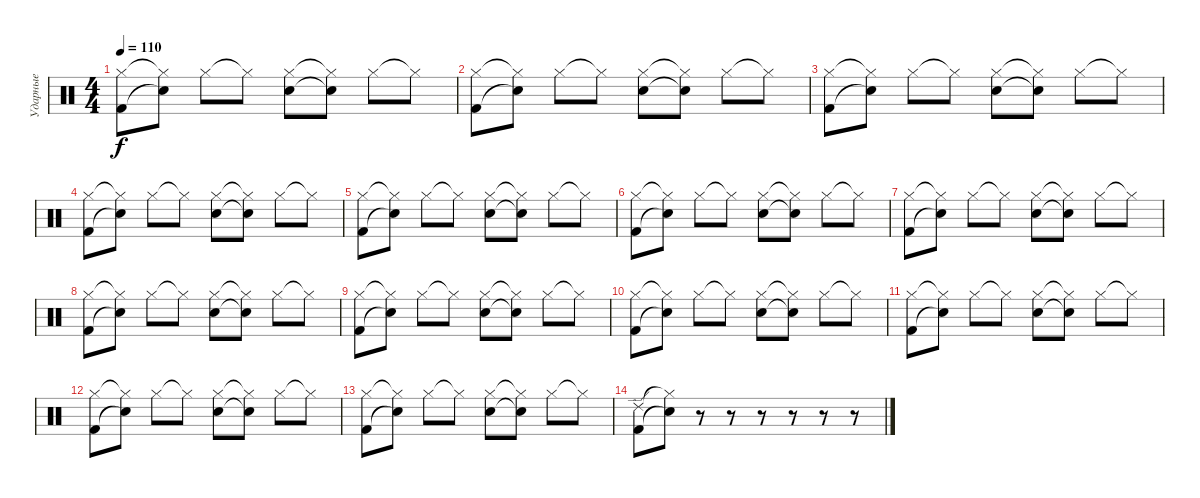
\track ("Ударные" "Ударные") {instrument percussion}
\staff {score}
\articulation defaults
\ts (4 4)
\tempo 110
\clef neutral
\ks c
("Hi-Hat (closed)" "Kick (hit) 2").8{dy f} ("Hi-Hat (closed)"{t} "Snare (hit)"{t}).8 "Hi-Hat (closed)".8 "Hi-Hat (closed)"{t}.8 ("Hi-Hat (closed)" "Snare (hit) 2").8 ("Hi-Hat (closed)"{t} "Snare (hit)"{t}).8 "Hi-Hat (closed)".8 "Hi-Hat (closed)"{t}.8 |
("Hi-Hat (closed)" "Kick (hit) 2").8 ("Hi-Hat (closed)"{t} "Snare (hit)"{t}).8 "Hi-Hat (closed)".8 "Hi-Hat (closed)"{t}.8 ("Hi-Hat (closed)" "Snare (hit) 2").8 ("Hi-Hat (closed)"{t} "Snare (hit)"{t}).8 "Hi-Hat (closed)".8 "Hi-Hat (closed)"{t}.8 |
("Hi-Hat (closed)" "Kick (hit) 2").8 ("Hi-Hat (closed)"{t} "Snare (hit)"{t}).8 "Hi-Hat (closed)".8 "Hi-Hat (closed)"{t}.8 ("Hi-Hat (closed)" "Snare (hit) 2").8 ("Hi-Hat (closed)"{t} "Snare (hit)"{t}).8 "Hi-Hat (closed)".8 "Hi-Hat (closed)"{t}.8 |
("Hi-Hat (closed)" "Kick (hit) 2").8 ("Hi-Hat (closed)"{t} "Snare (hit)"{t}).8 "Hi-Hat (closed)".8 "Hi-Hat (closed)"{t}.8 ("Hi-Hat (closed)" "Snare (hit) 2").8 ("Hi-Hat (closed)"{t} "Snare (hit)"{t}).8 "Hi-Hat (closed)".8 "Hi-Hat (closed)"{t}.8 |
("Hi-Hat (closed)" "Kick (hit) 2").8 ("Hi-Hat (closed)"{t} "Snare (hit)"{t}).8 "Hi-Hat (closed)".8 "Hi-Hat (closed)"{t}.8 ("Hi-Hat (closed)" "Snare (hit) 2").8 ("Hi-Hat (closed)"{t} "Snare (hit)"{t}).8 "Hi-Hat (closed)".8 "Hi-Hat (closed)"{t}.8 |
("Hi-Hat (closed)" "Kick (hit) 2").8 ("Hi-Hat (closed)"{t} "Snare (hit)"{t}).8 "Hi-Hat (closed)".8 "Hi-Hat (closed)"{t}.8 ("Hi-Hat (closed)" "Snare (hit) 2").8 ("Hi-Hat (closed)"{t} "Snare (hit)"{t}).8 "Hi-Hat (closed)".8 "Hi-Hat (closed)"{t}.8 |
("Hi-Hat (closed)" "Kick (hit) 2").8 ("Hi-Hat (closed)"{t} "Snare (hit)"{t}).8 "Hi-Hat (closed)".8 "Hi-Hat (closed)"{t}.8 ("Hi-Hat (closed)" "Snare (hit) 2").8 ("Hi-Hat (closed)"{t} "Snare (hit)"{t}).8 "Hi-Hat (closed)".8 "Hi-Hat (closed)"{t}.8 |
("Hi-Hat (closed)" "Kick (hit) 2").8 ("Hi-Hat (closed)"{t} "Snare (hit)"{t}).8 "Hi-Hat (closed)".8 "Hi-Hat (closed)"{t}.8 ("Hi-Hat (closed)" "Snare (hit) 2").8 ("Hi-Hat (closed)"{t} "Snare (hit)"{t}).8 "Hi-Hat (closed)".8 "Hi-Hat (closed)"{t}.8 |
("Hi-Hat (closed)" "Kick (hit) 2").8 ("Hi-Hat (closed)"{t} "Snare (hit)"{t}).8 "Hi-Hat (closed)".8 "Hi-Hat (closed)"{t}.8 ("Hi-Hat (closed)" "Snare (hit) 2").8 ("Hi-Hat (closed)"{t} "Snare (hit)"{t}).8 "Hi-Hat (closed)".8 "Hi-Hat (closed)"{t}.8 |
("Hi-Hat (closed)" "Kick (hit) 2").8 ("Hi-Hat (closed)"{t} "Snare (hit)"{t}).8 "Hi-Hat (closed)".8 "Hi-Hat (closed)"{t}.8 ("Hi-Hat (closed)" "Snare (hit) 2").8 ("Hi-Hat (closed)"{t} "Snare (hit)"{t}).8 "Hi-Hat (closed)".8 "Hi-Hat (closed)"{t}.8 |
("Hi-Hat (closed)" "Kick (hit) 2").8 ("Hi-Hat (closed)"{t} "Snare (hit)"{t}).8 "Hi-Hat (closed)".8 "Hi-Hat (closed)"{t}.8 ("Hi-Hat (closed)" "Snare (hit) 2").8 ("Hi-Hat (closed)"{t} "Snare (hit)"{t}).8 "Hi-Hat (closed)".8 "Hi-Hat (closed)"{t}.8 |
("Hi-Hat (closed)" "Kick (hit) 2").8 ("Hi-Hat (closed)"{t} "Snare (hit)"{t}).8 "Hi-Hat (closed)".8 "Hi-Hat (closed)"{t}.8 ("Hi-Hat (closed)" "Snare (hit) 2").8 ("Hi-Hat (closed)"{t} "Snare (hit)"{t}).8 "Hi-Hat (closed)".8 "Hi-Hat (closed)"{t}.8 |
("Hi-Hat (closed)" "Kick (hit) 2").8 ("Hi-Hat (closed)"{t} "Snare (hit)"{t}).8 "Hi-Hat (closed)".8 "Hi-Hat (closed)"{t}.8 ("Hi-Hat (closed)" "Snare (hit) 2").8 ("Hi-Hat (closed)"{t} "Snare (hit)"{t}).8 "Hi-Hat (closed)".8 "Hi-Hat (closed)"{t}.8 |
("Ride (edge) 2" "Kick (hit) 2").8 ("Hi-Hat (closed)"{t} "Snare (hit)"{t}).8 r.8 r.8 r.8 r.8 r.8 r.8
